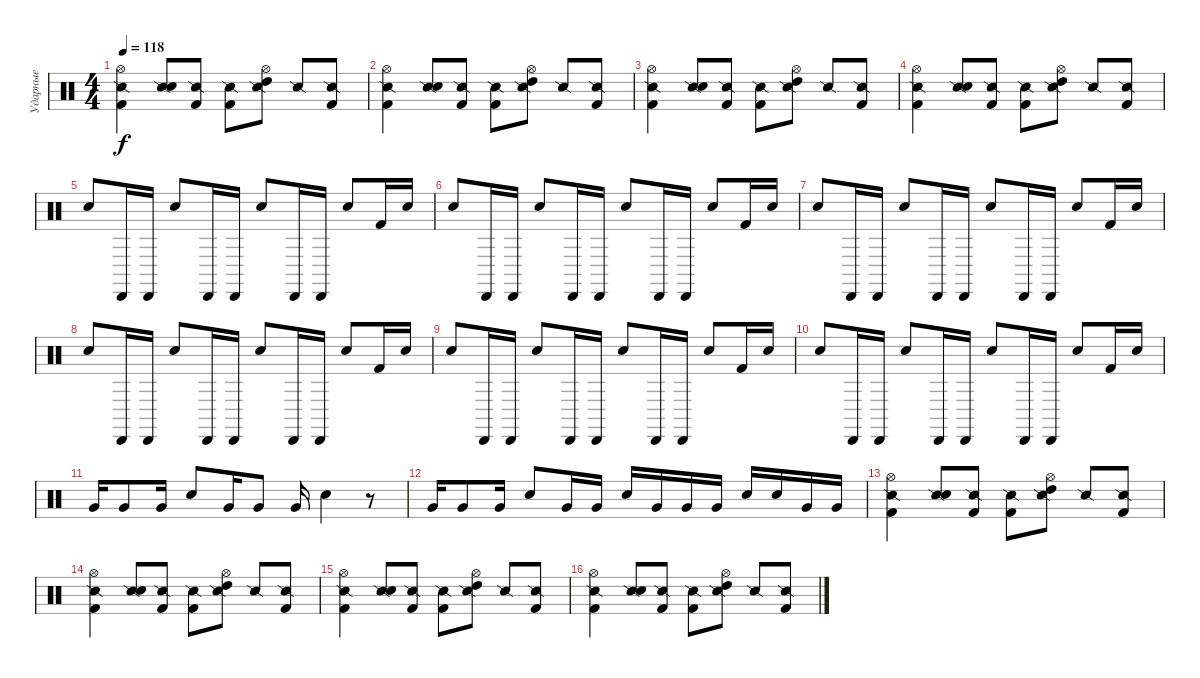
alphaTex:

\track ("Ударные" "Ударные") {solo instrument percussion}
\staff {score}
\articulation defaults
\ts (4 4)
\tempo 118
\clef neutral
\ks c
("Hi-Hat (open)" "Snare (side stick) 2" "Kick (hit) 2").4{dy f} ("Snare (side stick) 2" "Electric Snare (hit)").8 ("Snare (side stick) 2" "Kick (hit) 2").8 ("Snare (side stick) 2" "Kick (hit) 2").8 ("Hi-Hat (open)" "Snare (side stick) 2" "High Tom (hit)").8 "Snare (side stick) 2".8 ("Snare (side stick) 2" "Kick (hit) 2").8 |
("Hi-Hat (open)" "Snare (side stick) 2" "Kick (hit) 2").4 ("Snare (side stick) 2" "Electric Snare (hit)").8 ("Snare (side stick) 2" "Kick (hit) 2").8 ("Snare (side stick) 2" "Kick (hit) 2").8 ("Hi-Hat (open)" "Snare (side stick) 2" "High Tom (hit)").8 "Snare (side stick) 2".8 ("Snare (side stick) 2" "Kick (hit) 2").8 |
("Hi-Hat (open)" "Snare (side stick) 2" "Kick (hit) 2").4 ("Snare (side stick) 2" "Electric Snare (hit)").8 ("Snare (side stick) 2" "Kick (hit) 2").8 ("Snare (side stick) 2" "Kick (hit) 2").8 ("Hi-Hat (open)" "Snare (side stick) 2" "High Tom (hit)").8 "Snare (side stick) 2".8 ("Snare (side stick) 2" "Kick (hit) 2").8 |
("Hi-Hat (open)" "Snare (side stick) 2" "Kick (hit) 2").4 ("Snare (side stick) 2" "Electric Snare (hit)").8 ("Snare (side stick) 2" "Kick (hit) 2").8 ("Snare (side stick) 2" "Kick (hit) 2").8 ("Hi-Hat (open)" "Snare (side stick) 2" "High Tom (hit)").8 "Snare (side stick) 2".8 ("Snare (side stick) 2" "Kick (hit) 2").8 |
"Electric Snare (hit)".8 "Cabasa (hit)".16 "Cabasa (hit)".16 "Electric Snare (hit)".8 "Cabasa (hit)".16 "Cabasa (hit)".16 "Electric Snare (hit)".8 "Cabasa (hit)".16 "Cabasa (hit)".16 "Electric Snare (hit)".8 "Kick (hit) 2".16 "Electric Snare (hit)".16 |
"Electric Snare (hit)".8 "Cabasa (hit)".16 "Cabasa (hit)".16 "Electric Snare (hit)".8 "Cabasa (hit)".16 "Cabasa (hit)".16 "Electric Snare (hit)".8 "Cabasa (hit)".16 "Cabasa (hit)".16 "Electric Snare (hit)".8 "Kick (hit) 2".16 "Electric Snare (hit)".16 |
"Electric Snare (hit)".8 "Cabasa (hit)".16 "Cabasa (hit)".16 "Electric Snare (hit)".8 "Cabasa (hit)".16 "Cabasa (hit)".16 "Electric Snare (hit)".8 "Cabasa (hit)".16 "Cabasa (hit)".16 "Electric Snare (hit)".8 "Kick (hit) 2".16 "Electric Snare (hit)".16 |
"Electric Snare (hit)".8 "Cabasa (hit)".16 "Cabasa (hit)".16 "Electric Snare (hit)".8 "Cabasa (hit)".16 "Cabasa (hit)".16 "Electric Snare (hit)".8 "Cabasa (hit)".16 "Cabasa (hit)".16 "Electric Snare (hit)".8 "Kick (hit) 2".16 "Electric Snare (hit)".16 |
"Electric Snare (hit)".8 "Cabasa (hit)".16 "Cabasa (hit)".16 "Electric Snare (hit)".8 "Cabasa (hit)".16 "Cabasa (hit)".16 "Electric Snare (hit)".8 "Cabasa (hit)".16 "Cabasa (hit)".16 "Electric Snare (hit)".8 "Kick (hit) 2".16 "Electric Snare (hit)".16 |
"Electric Snare (hit)".8 "Cabasa (hit)".16 "Cabasa (hit)".16 "Electric Snare (hit)".8 "Cabasa (hit)".16 "Cabasa (hit)".16 "Electric Snare (hit)".8 "Cabasa (hit)".16 "Cabasa (hit)".16 "Electric Snare (hit)".8 "Kick (hit) 2".16 "Electric Snare (hit)".16 |
"Very Low Tom (hit)".16 "Very Low Tom (hit)".8 "Very Low Tom (hit)".16 "Electric Snare (hit)".8 "Very Low Tom (hit)".16 "Very Low Tom (hit)".8 "Very Low Tom (hit)".16 "Electric Snare (hit)".4 r.8 |
"Very Low Tom (hit)".16 "Very Low Tom (hit)".8 "Very Low Tom (hit)".16 "Electric Snare (hit)".8 "Very Low Tom (hit)".16 "Very Low Tom (hit)".16 "Electric Snare (hit)".16 "Very Low Tom (hit)".16 "Very Low Tom (hit)".16 "Very Low Tom (hit)".16 "Electric Snare (hit)".16 "Electric Snare (hit)".16 "Very Low Tom (hit)".16 "Very Low Tom (hit)".16 |
("Hi-Hat (open)" "Snare (side stick) 2" "Kick (hit) 2").4 ("Snare (side stick) 2" "Electric Snare (hit)").8 ("Snare (side stick) 2" "Kick (hit) 2").8 ("Snare (side stick) 2" "Kick (hit) 2").8 ("Hi-Hat (open)" "Snare (side stick) 2" "High Tom (hit)").8 "Snare (side stick) 2".8 ("Snare (side stick) 2" "Kick (hit) 2").8 |
("Hi-Hat (open)" "Snare (side stick) 2" "Kick (hit) 2").4 ("Snare (side stick) 2" "Electric Snare (hit)").8 ("Snare (side stick) 2" "Kick (hit) 2").8 ("Snare (side stick) 2" "Kick (hit) 2").8 ("Hi-Hat (open)" "Snare (side stick) 2" "High Tom (hit)").8 "Snare (side stick) 2".8 ("Snare (side stick) 2" "Kick (hit) 2").8 |
("Hi-Hat (open)" "Snare (side stick) 2" "Kick (hit) 2").4 ("Snare (side stick) 2" "Electric Snare (hit)").8 ("Snare (side stick) 2" "Kick (hit) 2").8 ("Snare (side stick) 2" "Kick (hit) 2").8 ("Hi-Hat (open)" "Snare (side stick) 2" "High Tom (hit)").8 "Snare (side stick) 2".8 ("Snare (side stick) 2" "Kick (hit) 2").8 |
("Hi-Hat (open)" "Snare (side stick) 2" "Kick (hit) 2").4 ("Snare (side stick) 2" "Electric Snare (hit)").8 ("Snare (side stick) 2" "Kick (hit) 2").8 ("Snare (side stick) 2" "Kick (hit) 2").8 ("Hi-Hat (open)" "Snare (side stick) 2" "High Tom (hit)").8 "Snare (side stick) 2".8 ("Snare (side stick) 2" "Kick (hit) 2").8
